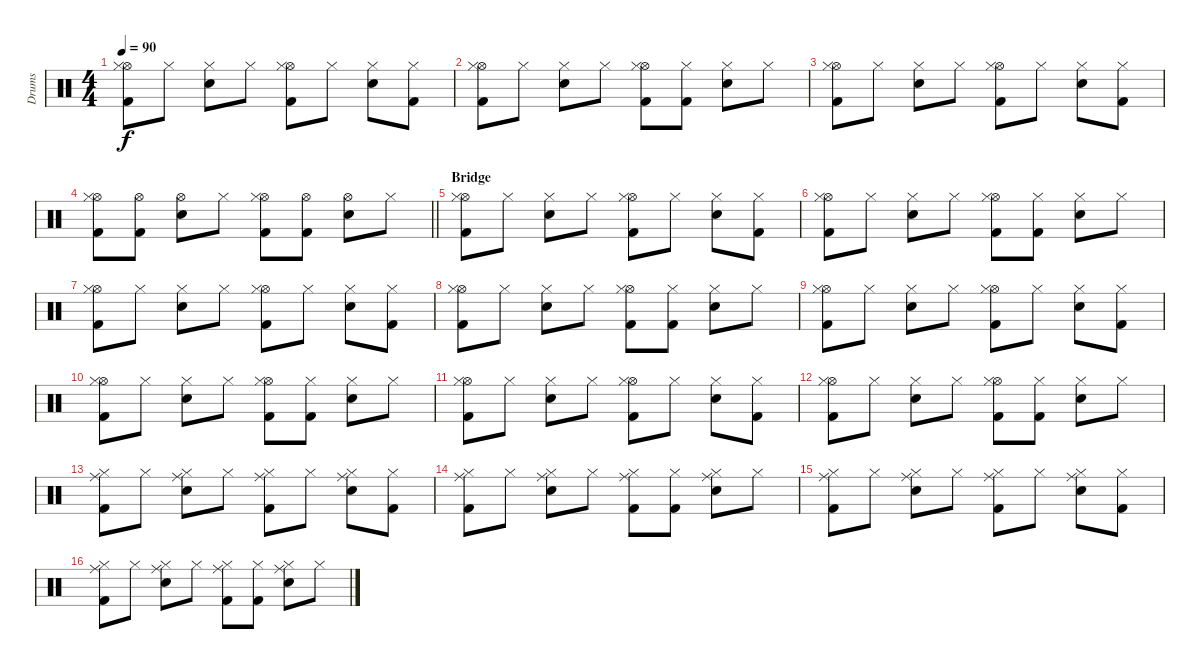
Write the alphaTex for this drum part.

\track ("Drums" "Drums") {instrument percussion}
\staff {score}
\articulation defaults
\ts (4 4)
\tempo 90
\clef neutral
\ks c
("Hi-Hat (open)" "Hi-Hat (closed)" "Kick (hit) 2").8{dy f} "Hi-Hat (closed)".8 ("Hi-Hat (closed)" "Electric Snare (hit)").8 "Hi-Hat (closed)".8 ("Hi-Hat (open)" "Hi-Hat (closed)" "Kick (hit) 2").8 "Hi-Hat (closed)".8 ("Hi-Hat (closed)" "Electric Snare (hit)").8 ("Hi-Hat (closed)" "Kick (hit) 2").8 |
("Hi-Hat (open)" "Hi-Hat (closed)" "Kick (hit) 2").8 "Hi-Hat (closed)".8 ("Hi-Hat (closed)" "Electric Snare (hit)").8 "Hi-Hat (closed)".8 ("Hi-Hat (open)" "Hi-Hat (closed)" "Kick (hit) 2").8 ("Hi-Hat (closed)" "Kick (hit) 2").8 ("Hi-Hat (closed)" "Electric Snare (hit)").8 "Hi-Hat (closed)".8 |
("Hi-Hat (open)" "Hi-Hat (closed)" "Kick (hit) 2").8 "Hi-Hat (closed)".8 ("Hi-Hat (closed)" "Electric Snare (hit)").8 "Hi-Hat (closed)".8 ("Hi-Hat (open)" "Hi-Hat (closed)" "Kick (hit) 2").8 "Hi-Hat (closed)".8 ("Hi-Hat (closed)" "Electric Snare (hit)").8 ("Hi-Hat (closed)" "Kick (hit) 2").8 |
\barLineRight lightlight
("Hi-Hat (open)" "Hi-Hat (closed)" "Kick (hit) 2").8 ("Hi-Hat (open)" "Kick (hit) 2").8 ("Hi-Hat (open)" "Electric Snare (hit)").8 "Hi-Hat (closed)".8 ("Hi-Hat (open)" "Hi-Hat (closed)" "Kick (hit) 2").8 ("Hi-Hat (open)" "Kick (hit) 2").8 ("Hi-Hat (open)" "Electric Snare (hit)").8 "Hi-Hat (closed)".8 |
\section ("" "Bridge")
("Hi-Hat (open)" "Hi-Hat (closed)" "Kick (hit) 2").8 "Hi-Hat (closed)".8 ("Hi-Hat (closed)" "Electric Snare (hit)").8 "Hi-Hat (closed)".8 ("Hi-Hat (open)" "Hi-Hat (closed)" "Kick (hit) 2").8 "Hi-Hat (closed)".8 ("Hi-Hat (closed)" "Electric Snare (hit)").8 ("Hi-Hat (closed)" "Kick (hit) 2").8 |
("Hi-Hat (open)" "Hi-Hat (closed)" "Kick (hit) 2").8 "Hi-Hat (closed)".8 ("Hi-Hat (closed)" "Electric Snare (hit)").8 "Hi-Hat (closed)".8 ("Hi-Hat (open)" "Hi-Hat (closed)" "Kick (hit) 2").8 ("Hi-Hat (closed)" "Kick (hit) 2").8 ("Hi-Hat (closed)" "Electric Snare (hit)").8 "Hi-Hat (closed)".8 |
("Hi-Hat (open)" "Hi-Hat (closed)" "Kick (hit) 2").8 "Hi-Hat (closed)".8 ("Hi-Hat (closed)" "Electric Snare (hit)").8 "Hi-Hat (closed)".8 ("Hi-Hat (open)" "Hi-Hat (closed)" "Kick (hit) 2").8 "Hi-Hat (closed)".8 ("Hi-Hat (closed)" "Electric Snare (hit)").8 ("Hi-Hat (closed)" "Kick (hit) 2").8 |
("Hi-Hat (open)" "Hi-Hat (closed)" "Kick (hit) 2").8 "Hi-Hat (closed)".8 ("Hi-Hat (closed)" "Electric Snare (hit)").8 "Hi-Hat (closed)".8 ("Hi-Hat (open)" "Hi-Hat (closed)" "Kick (hit) 2").8 ("Hi-Hat (closed)" "Kick (hit) 2").8 ("Hi-Hat (closed)" "Electric Snare (hit)").8 "Hi-Hat (closed)".8 |
("Hi-Hat (open)" "Hi-Hat (closed)" "Kick (hit) 2").8 "Hi-Hat (closed)".8 ("Hi-Hat (closed)" "Electric Snare (hit)").8 "Hi-Hat (closed)".8 ("Hi-Hat (open)" "Hi-Hat (closed)" "Kick (hit) 2").8 "Hi-Hat (closed)".8 ("Hi-Hat (closed)" "Electric Snare (hit)").8 ("Hi-Hat (closed)" "Kick (hit) 2").8 |
("Hi-Hat (open)" "Hi-Hat (closed)" "Kick (hit) 2").8 "Hi-Hat (closed)".8 ("Hi-Hat (closed)" "Electric Snare (hit)").8 "Hi-Hat (closed)".8 ("Hi-Hat (open)" "Hi-Hat (closed)" "Kick (hit) 2").8 ("Hi-Hat (closed)" "Kick (hit) 2").8 ("Hi-Hat (closed)" "Electric Snare (hit)").8 "Hi-Hat (closed)".8 |
("Hi-Hat (open)" "Hi-Hat (closed)" "Kick (hit) 2").8 "Hi-Hat (closed)".8 ("Hi-Hat (closed)" "Electric Snare (hit)").8 "Hi-Hat (closed)".8 ("Hi-Hat (open)" "Hi-Hat (closed)" "Kick (hit) 2").8 "Hi-Hat (closed)".8 ("Hi-Hat (closed)" "Electric Snare (hit)").8 ("Hi-Hat (closed)" "Kick (hit) 2").8 |
("Hi-Hat (open)" "Hi-Hat (closed)" "Kick (hit) 2").8 "Hi-Hat (closed)".8 ("Hi-Hat (closed)" "Electric Snare (hit)").8 "Hi-Hat (closed)".8 ("Hi-Hat (open)" "Hi-Hat (closed)" "Kick (hit) 2").8 ("Hi-Hat (closed)" "Kick (hit) 2").8 ("Hi-Hat (closed)" "Electric Snare (hit)").8 "Hi-Hat (closed)".8 |
("Ride (middle)" "Hi-Hat (closed)" "Kick (hit) 2").8 "Hi-Hat (closed)".8 ("Ride (middle)" "Hi-Hat (closed)" "Electric Snare (hit)").8 "Hi-Hat (closed)".8 ("Ride (middle)" "Hi-Hat (closed)" "Kick (hit) 2").8 "Hi-Hat (closed)".8 ("Ride (middle)" "Hi-Hat (closed)" "Electric Snare (hit)").8 ("Hi-Hat (closed)" "Kick (hit) 2").8 |
("Ride (middle)" "Hi-Hat (closed)" "Kick (hit) 2").8 "Hi-Hat (closed)".8 ("Ride (middle)" "Hi-Hat (closed)" "Electric Snare (hit)").8 "Hi-Hat (closed)".8 ("Ride (middle)" "Hi-Hat (closed)" "Kick (hit) 2").8 ("Hi-Hat (closed)" "Kick (hit) 2").8 ("Ride (middle)" "Hi-Hat (closed)" "Electric Snare (hit)").8 "Hi-Hat (closed)".8 |
("Ride (middle)" "Hi-Hat (closed)" "Kick (hit) 2").8 "Hi-Hat (closed)".8 ("Ride (middle)" "Hi-Hat (closed)" "Electric Snare (hit)").8 "Hi-Hat (closed)".8 ("Ride (middle)" "Hi-Hat (closed)" "Kick (hit) 2").8 "Hi-Hat (closed)".8 ("Ride (middle)" "Hi-Hat (closed)" "Electric Snare (hit)").8 ("Hi-Hat (closed)" "Kick (hit) 2").8 |
("Ride (middle)" "Hi-Hat (closed)" "Kick (hit) 2").8 "Hi-Hat (closed)".8 ("Ride (middle)" "Hi-Hat (closed)" "Electric Snare (hit)").8 "Hi-Hat (closed)".8 ("Ride (middle)" "Hi-Hat (closed)" "Kick (hit) 2").8 ("Hi-Hat (closed)" "Kick (hit) 2").8 ("Ride (middle)" "Hi-Hat (closed)" "Electric Snare (hit)").8 "Hi-Hat (closed)".8
